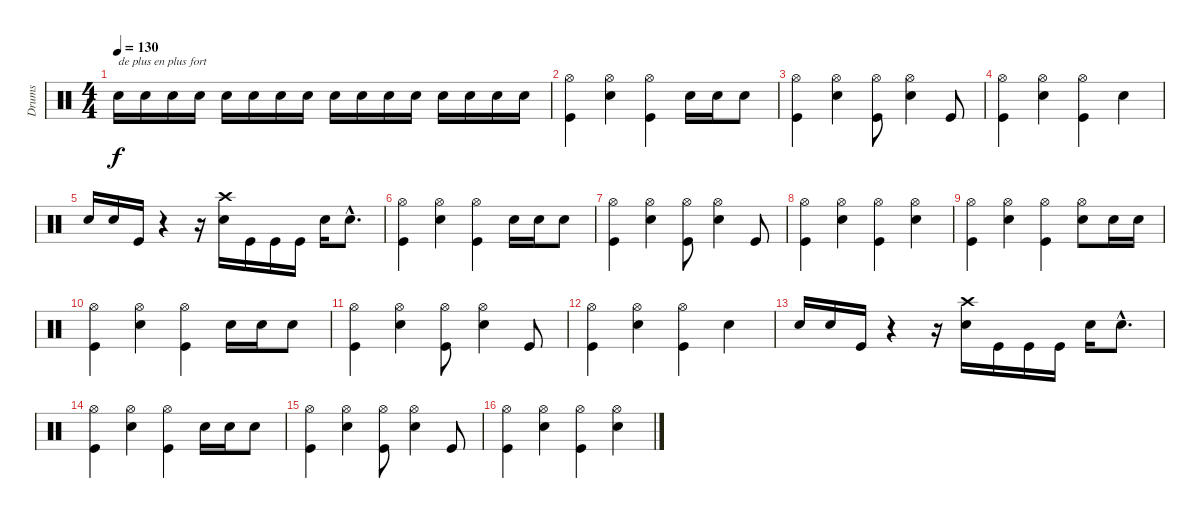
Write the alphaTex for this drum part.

\track ("Drums" "Drums") {instrument percussion}
\staff {score}
\articulation defaults
\ts (4 4)
\tempo 130
\clef neutral
\ks c "Snare (hit) 2".16{txt "de plus en plus fort" dy f} "Snare (hit) 2".16 "Snare (hit) 2".16 "Snare (hit) 2".16 "Snare (hit) 2".16 "Snare (hit) 2".16 "Snare (hit) 2".16 "Snare (hit) 2".16 "Snare (hit) 2".16 "Snare (hit) 2".16 "Snare (hit) 2".16 "Snare (hit) 2".16 "Snare (hit) 2".16 "Snare (hit) 2".16 "Snare (hit) 2".16 "Snare (hit) 2".16
|
("Kick (hit)" "Hi-Hat (open)").4 ("Snare (hit) 2" "Hi-Hat (open)").4 ("Kick (hit)" "Hi-Hat (open)").4 "Snare (hit) 2".16 "Snare (hit) 2".16 "Snare (hit) 2".8 |
("Hi-Hat (open)" "Kick (hit)").4 ("Hi-Hat (open)" "Snare (hit) 2").4 ("Hi-Hat (open)" "Kick (hit)").8 ("Hi-Hat (open)" "Snare (hit) 2").4 "Kick (hit)".8 |
("Hi-Hat (open)" "Kick (hit)").4 ("Hi-Hat (open)" "Snare (hit) 2").4 ("Hi-Hat (open)" "Kick (hit)").4 "Snare (hit) 2".4 |
"Snare (hit) 2".16 "Snare (hit) 2".16 "Kick (hit)".16 r.4 r.16 ("Crash high (hit)" "Snare (hit) 2").16 "Kick (hit)".16 "Kick (hit)".16 "Kick (hit)".16 "Snare (hit) 2".16 "Snare (hit) 2"{hac}.8{d} |
("Kick (hit)" "Hi-Hat (open)").4 ("Snare (hit) 2" "Hi-Hat (open)").4 ("Kick (hit)" "Hi-Hat (open)").4 "Snare (hit) 2".16 "Snare (hit) 2".16 "Snare (hit) 2".8 |
("Hi-Hat (open)" "Kick (hit)").4 ("Hi-Hat (open)" "Snare (hit) 2").4 ("Hi-Hat (open)" "Kick (hit)").8 ("Hi-Hat (open)" "Snare (hit) 2").4 "Kick (hit)".8 |
("Hi-Hat (open)" "Kick (hit)").4 ("Hi-Hat (open)" "Snare (hit) 2").4 ("Hi-Hat (open)" "Kick (hit)").4 ("Hi-Hat (open)" "Snare (hit) 2").4 |
("Hi-Hat (open)" "Kick (hit)").4 ("Hi-Hat (open)" "Snare (hit) 2").4 ("Hi-Hat (open)" "Kick (hit)").4 ("Hi-Hat (open)" "Snare (hit) 2").8 "Snare (hit) 2".16 "Snare (hit) 2".16 |
("Kick (hit)" "Hi-Hat (open)").4 ("Snare (hit) 2" "Hi-Hat (open)").4 ("Kick (hit)" "Hi-Hat (open)").4 "Snare (hit) 2".16 "Snare (hit) 2".16 "Snare (hit) 2".8 |
("Hi-Hat (open)" "Kick (hit)").4 ("Hi-Hat (open)" "Snare (hit) 2").4 ("Hi-Hat (open)" "Kick (hit)").8 ("Hi-Hat (open)" "Snare (hit) 2").4 "Kick (hit)".8 |
("Hi-Hat (open)" "Kick (hit)").4 ("Hi-Hat (open)" "Snare (hit) 2").4 ("Hi-Hat (open)" "Kick (hit)").4 "Snare (hit) 2".4 |
"Snare (hit) 2".16 "Snare (hit) 2".16 "Kick (hit)".16 r.4 r.16 ("Crash high (hit)" "Snare (hit) 2").16 "Kick (hit)".16 "Kick (hit)".16 "Kick (hit)".16 "Snare (hit) 2".16 "Snare (hit) 2"{hac}.8{d} |
("Kick (hit)" "Hi-Hat (open)").4 ("Snare (hit) 2" "Hi-Hat (open)").4 ("Kick (hit)" "Hi-Hat (open)").4 "Snare (hit) 2".16 "Snare (hit) 2".16 "Snare (hit) 2".8 |
("Hi-Hat (open)" "Kick (hit)").4 ("Hi-Hat (open)" "Snare (hit) 2").4 ("Hi-Hat (open)" "Kick (hit)").8 ("Hi-Hat (open)" "Snare (hit) 2").4 "Kick (hit)".8 |
("Hi-Hat (open)" "Kick (hit)").4 ("Hi-Hat (open)" "Snare (hit) 2").4 ("Hi-Hat (open)" "Kick (hit)").4 ("Hi-Hat (open)" "Snare (hit) 2").4
